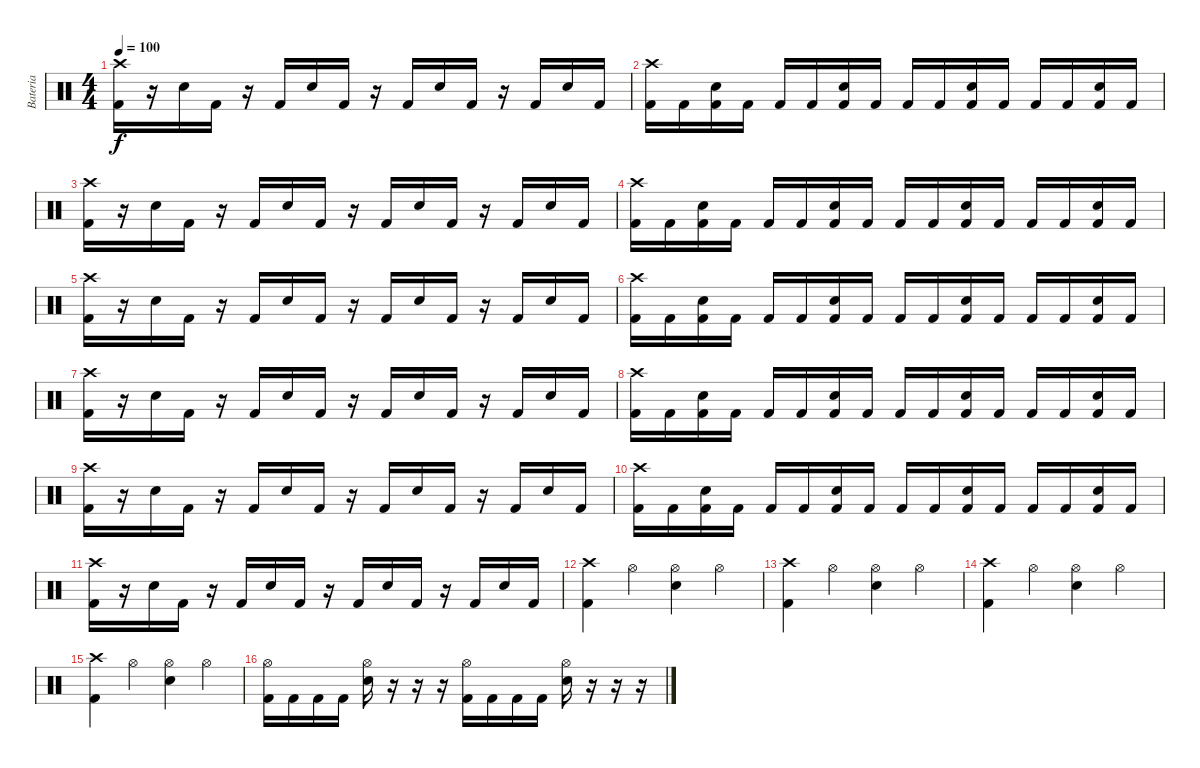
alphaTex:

\track ("Bateria" "Bateria") {instrument percussion}
\staff {score}
\articulation defaults
\ts (4 4)
\tempo 100
\clef neutral
\ks c
("Crash high (hit)" "Kick (hit) 2").16{dy f} r.16 "Snare (hit) 2".16 "Kick (hit) 2".16 r.16 "Kick (hit) 2".16 "Snare (hit) 2".16 "Kick (hit) 2".16 r.16 "Kick (hit) 2".16 "Snare (hit) 2".16 "Kick (hit) 2".16 r.16 "Kick (hit) 2".16 "Snare (hit) 2".16 "Kick (hit) 2".16 |
("Crash high (hit)" "Kick (hit) 2").16 "Kick (hit) 2".16 ("Snare (hit) 2" "Kick (hit) 2").16 "Kick (hit) 2".16 "Kick (hit) 2".16 "Kick (hit) 2".16 ("Snare (hit) 2" "Kick (hit) 2").16 "Kick (hit) 2".16 "Kick (hit) 2".16 "Kick (hit) 2".16 ("Snare (hit) 2" "Kick (hit) 2").16 "Kick (hit) 2".16 "Kick (hit) 2".16 "Kick (hit) 2".16 ("Snare (hit) 2" "Kick (hit) 2").16 "Kick (hit) 2".16 |
("Crash high (hit)" "Kick (hit) 2").16 r.16 "Snare (hit) 2".16 "Kick (hit) 2".16 r.16 "Kick (hit) 2".16 "Snare (hit) 2".16 "Kick (hit) 2".16 r.16 "Kick (hit) 2".16 "Snare (hit) 2".16 "Kick (hit) 2".16 r.16 "Kick (hit) 2".16 "Snare (hit) 2".16 "Kick (hit) 2".16 |
("Crash high (hit)" "Kick (hit) 2").16 "Kick (hit) 2".16 ("Snare (hit) 2" "Kick (hit) 2").16 "Kick (hit) 2".16 "Kick (hit) 2".16 "Kick (hit) 2".16 ("Snare (hit) 2" "Kick (hit) 2").16 "Kick (hit) 2".16 "Kick (hit) 2".16 "Kick (hit) 2".16 ("Snare (hit) 2" "Kick (hit) 2").16 "Kick (hit) 2".16 "Kick (hit) 2".16 "Kick (hit) 2".16 ("Snare (hit) 2" "Kick (hit) 2").16 "Kick (hit) 2".16 |
("Crash high (hit)" "Kick (hit) 2").16 r.16 "Snare (hit) 2".16 "Kick (hit) 2".16 r.16 "Kick (hit) 2".16 "Snare (hit) 2".16 "Kick (hit) 2".16 r.16 "Kick (hit) 2".16 "Snare (hit) 2".16 "Kick (hit) 2".16 r.16 "Kick (hit) 2".16 "Snare (hit) 2".16 "Kick (hit) 2".16 |
("Crash high (hit)" "Kick (hit) 2").16 "Kick (hit) 2".16 ("Snare (hit) 2" "Kick (hit) 2").16 "Kick (hit) 2".16 "Kick (hit) 2".16 "Kick (hit) 2".16 ("Snare (hit) 2" "Kick (hit) 2").16 "Kick (hit) 2".16 "Kick (hit) 2".16 "Kick (hit) 2".16 ("Snare (hit) 2" "Kick (hit) 2").16 "Kick (hit) 2".16 "Kick (hit) 2".16 "Kick (hit) 2".16 ("Snare (hit) 2" "Kick (hit) 2").16 "Kick (hit) 2".16 |
("Crash high (hit)" "Kick (hit) 2").16 r.16 "Snare (hit) 2".16 "Kick (hit) 2".16 r.16 "Kick (hit) 2".16 "Snare (hit) 2".16 "Kick (hit) 2".16 r.16 "Kick (hit) 2".16 "Snare (hit) 2".16 "Kick (hit) 2".16 r.16 "Kick (hit) 2".16 "Snare (hit) 2".16 "Kick (hit) 2".16 |
("Crash high (hit)" "Kick (hit) 2").16 "Kick (hit) 2".16 ("Snare (hit) 2" "Kick (hit) 2").16 "Kick (hit) 2".16 "Kick (hit) 2".16 "Kick (hit) 2".16 ("Snare (hit) 2" "Kick (hit) 2").16 "Kick (hit) 2".16 "Kick (hit) 2".16 "Kick (hit) 2".16 ("Snare (hit) 2" "Kick (hit) 2").16 "Kick (hit) 2".16 "Kick (hit) 2".16 "Kick (hit) 2".16 ("Snare (hit) 2" "Kick (hit) 2").16 "Kick (hit) 2".16 |
("Crash high (hit)" "Kick (hit) 2").16 r.16 "Snare (hit) 2".16 "Kick (hit) 2".16 r.16 "Kick (hit) 2".16 "Snare (hit) 2".16 "Kick (hit) 2".16 r.16 "Kick (hit) 2".16 "Snare (hit) 2".16 "Kick (hit) 2".16 r.16 "Kick (hit) 2".16 "Snare (hit) 2".16 "Kick (hit) 2".16 |
("Crash high (hit)" "Kick (hit) 2").16 "Kick (hit) 2".16 ("Snare (hit) 2" "Kick (hit) 2").16 "Kick (hit) 2".16 "Kick (hit) 2".16 "Kick (hit) 2".16 ("Snare (hit) 2" "Kick (hit) 2").16 "Kick (hit) 2".16 "Kick (hit) 2".16 "Kick (hit) 2".16 ("Snare (hit) 2" "Kick (hit) 2").16 "Kick (hit) 2".16 "Kick (hit) 2".16 "Kick (hit) 2".16 ("Snare (hit) 2" "Kick (hit) 2").16 "Kick (hit) 2".16 |
("Crash high (hit)" "Kick (hit) 2").16 r.16 "Snare (hit) 2".16 "Kick (hit) 2".16 r.16 "Kick (hit) 2".16 "Snare (hit) 2".16 "Kick (hit) 2".16 r.16 "Kick (hit) 2".16 "Snare (hit) 2".16 "Kick (hit) 2".16 r.16 "Kick (hit) 2".16 "Snare (hit) 2".16 "Kick (hit) 2".16 |
("Crash high (hit)" "Kick (hit) 2").4 "Hi-Hat (open)".4 ("Hi-Hat (open)" "Snare (hit) 2").4 "Hi-Hat (open)".4 |
("Crash high (hit)" "Kick (hit) 2").4 "Hi-Hat (open)".4 ("Hi-Hat (open)" "Snare (hit) 2").4 "Hi-Hat (open)".4 |
("Crash high (hit)" "Kick (hit) 2").4 "Hi-Hat (open)".4 ("Hi-Hat (open)" "Snare (hit) 2").4 "Hi-Hat (open)".4 |
("Crash high (hit)" "Kick (hit) 2").4 "Hi-Hat (open)".4 ("Hi-Hat (open)" "Snare (hit) 2").4 "Hi-Hat (open)".4 |
("Hi-Hat (open)" "Kick (hit) 2").16 "Kick (hit) 2".16 "Kick (hit) 2".16 "Kick (hit) 2".16 ("Hi-Hat (open)" "Snare (hit) 2").16 r.16 r.16 r.16 ("Hi-Hat (open)" "Kick (hit) 2").16 "Kick (hit) 2".16 "Kick (hit) 2".16 "Kick (hit) 2".16 ("Hi-Hat (open)" "Snare (hit) 2").16 r.16 r.16 r.16
